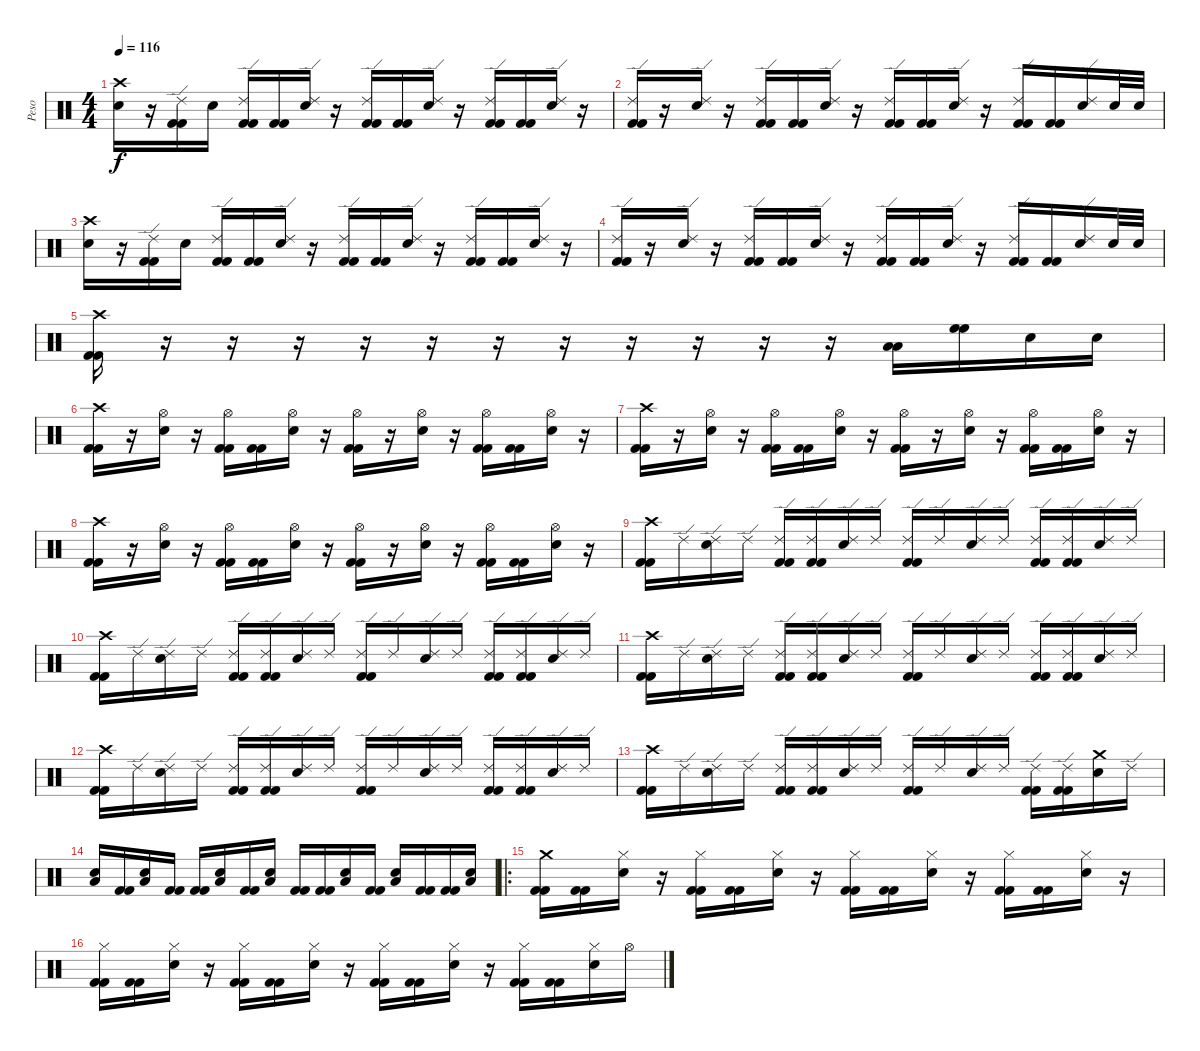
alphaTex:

\track ("Peso" "Peso") {instrument percussion}
\staff {score}
\articulation defaults
\ts (4 4)
\tempo 116
\clef neutral
\ks c
("Crash high (hit)" "Snare (hit) 2").16{dy f} r.16 ("Ride (edge) 2" "Kick (hit) 2" "Kick (hit) 2").16 "Snare (hit) 2".16 ("Ride (edge) 2" "Kick (hit) 2" "Kick (hit) 2").16 ("Kick (hit) 2" "Kick (hit) 2").16 ("Ride (edge) 2" "Snare (hit) 2").16 r.16 ("Ride (edge) 2" "Kick (hit) 2" "Kick (hit) 2").16 ("Kick (hit) 2" "Kick (hit) 2").16 ("Ride (edge) 2" "Snare (hit) 2").16 r.16 ("Ride (edge) 2" "Kick (hit) 2" "Kick (hit) 2").16 ("Kick (hit) 2" "Kick (hit) 2").16 ("Ride (edge) 2" "Snare (hit) 2").16 r.16 |
("Ride (edge) 2" "Kick (hit) 2" "Kick (hit) 2").16 r.16 ("Ride (edge) 2" "Snare (hit) 2").16 r.16 ("Ride (edge) 2" "Kick (hit) 2" "Kick (hit) 2").16 ("Kick (hit) 2" "Kick (hit) 2").16 ("Ride (edge) 2" "Snare (hit) 2").16 r.16 ("Ride (edge) 2" "Kick (hit) 2" "Kick (hit) 2").16 ("Kick (hit) 2" "Kick (hit) 2").16 ("Ride (edge) 2" "Snare (hit) 2").16 r.16 ("Ride (edge) 2" "Kick (hit) 2" "Kick (hit) 2").16 ("Kick (hit) 2" "Kick (hit) 2").16 ("Ride (edge) 2" "Snare (hit) 2").16 "Snare (hit) 2".32 "Snare (hit) 2".32 |
("Crash high (hit)" "Snare (hit) 2").16 r.16 ("Ride (edge) 2" "Kick (hit) 2" "Kick (hit) 2").16 "Snare (hit) 2".16 ("Ride (edge) 2" "Kick (hit) 2" "Kick (hit) 2").16 ("Kick (hit) 2" "Kick (hit) 2").16 ("Ride (edge) 2" "Snare (hit) 2").16 r.16 ("Ride (edge) 2" "Kick (hit) 2" "Kick (hit) 2").16 ("Kick (hit) 2" "Kick (hit) 2").16 ("Ride (edge) 2" "Snare (hit) 2").16 r.16 ("Ride (edge) 2" "Kick (hit) 2" "Kick (hit) 2").16 ("Kick (hit) 2" "Kick (hit) 2").16 ("Ride (edge) 2" "Snare (hit) 2").16 r.16 |
("Ride (edge) 2" "Kick (hit) 2" "Kick (hit) 2").16 r.16 ("Ride (edge) 2" "Snare (hit) 2").16 r.16 ("Ride (edge) 2" "Kick (hit) 2" "Kick (hit) 2").16 ("Kick (hit) 2" "Kick (hit) 2").16 ("Ride (edge) 2" "Snare (hit) 2").16 r.16 ("Ride (edge) 2" "Kick (hit) 2" "Kick (hit) 2").16 ("Kick (hit) 2" "Kick (hit) 2").16 ("Ride (edge) 2" "Snare (hit) 2").16 r.16 ("Ride (edge) 2" "Kick (hit) 2" "Kick (hit) 2").16 ("Kick (hit) 2" "Kick (hit) 2").16 ("Ride (edge) 2" "Snare (hit) 2").16 "Snare (hit) 2".32 "Snare (hit) 2".32 |
("Crash high (hit)" "Kick (hit) 2" "Kick (hit) 2").16 r.16 r.16 r.16 r.16 r.16 r.16 r.16 r.16 r.16 r.16 r.16 ("Low Floor Tom (hit)" "Low Floor Tom (hit)").16{volume 16} ("High Floor Tom (hit)" "High Floor Tom (hit)").16 "Snare (hit) 2".16{volume 15} "Snare (hit) 2".16 |
("Crash high (hit)" "Kick (hit) 2" "Kick (hit) 2").16 r.16 ("Hi-Hat (open)" "Snare (hit) 2").16 r.16 ("Hi-Hat (open)" "Kick (hit) 2" "Kick (hit) 2").16 ("Kick (hit) 2" "Kick (hit) 2").16 ("Hi-Hat (open)" "Snare (hit) 2").16 r.16 ("Hi-Hat (open)" "Kick (hit) 2" "Kick (hit) 2").16 r.16 ("Hi-Hat (open)" "Snare (hit) 2").16 r.16 ("Hi-Hat (open)" "Kick (hit) 2" "Kick (hit) 2").16 ("Kick (hit) 2" "Kick (hit) 2").16 ("Hi-Hat (open)" "Snare (hit) 2").16 r.16 |
("Crash high (hit)" "Kick (hit) 2" "Kick (hit) 2").16 r.16 ("Hi-Hat (open)" "Snare (hit) 2").16 r.16 ("Hi-Hat (open)" "Kick (hit) 2" "Kick (hit) 2").16 ("Kick (hit) 2" "Kick (hit) 2").16 ("Hi-Hat (open)" "Snare (hit) 2").16 r.16 ("Hi-Hat (open)" "Kick (hit) 2" "Kick (hit) 2").16 r.16 ("Hi-Hat (open)" "Snare (hit) 2").16 r.16 ("Hi-Hat (open)" "Kick (hit) 2" "Kick (hit) 2").16 ("Kick (hit) 2" "Kick (hit) 2").16 ("Hi-Hat (open)" "Snare (hit) 2").16 r.16 |
("Crash high (hit)" "Kick (hit) 2" "Kick (hit) 2").16 r.16 ("Hi-Hat (open)" "Snare (hit) 2").16 r.16 ("Hi-Hat (open)" "Kick (hit) 2" "Kick (hit) 2").16 ("Kick (hit) 2" "Kick (hit) 2").16 ("Hi-Hat (open)" "Snare (hit) 2").16 r.16 ("Hi-Hat (open)" "Kick (hit) 2" "Kick (hit) 2").16 r.16 ("Hi-Hat (open)" "Snare (hit) 2").16 r.16 ("Hi-Hat (open)" "Kick (hit) 2" "Kick (hit) 2").16 ("Kick (hit) 2" "Kick (hit) 2").16 ("Hi-Hat (open)" "Snare (hit) 2").16 r.16 |
("Crash high (hit)" "Kick (hit) 2" "Kick (hit) 2").16 "Ride (edge) 2".16 ("Ride (edge) 2" "Snare (hit) 2").16 "Ride (edge) 2".16 ("Ride (edge) 2" "Kick (hit) 2" "Kick (hit) 2").16 ("Ride (edge) 2" "Kick (hit) 2" "Kick (hit) 2").16 ("Ride (edge) 2" "Snare (hit) 2").16 "Ride (edge) 2".16 ("Ride (edge) 2" "Kick (hit) 2" "Kick (hit) 2").16 "Ride (edge) 2".16 ("Ride (edge) 2" "Snare (hit) 2").16 "Ride (edge) 2".16 ("Ride (edge) 2" "Kick (hit) 2" "Kick (hit) 2").16 ("Ride (edge) 2" "Kick (hit) 2" "Kick (hit) 2").16 ("Ride (edge) 2" "Snare (hit) 2").16 "Ride (edge) 2".16 |
("Crash high (hit)" "Kick (hit) 2" "Kick (hit) 2").16 "Ride (edge) 2".16 ("Ride (edge) 2" "Snare (hit) 2").16 "Ride (edge) 2".16 ("Ride (edge) 2" "Kick (hit) 2" "Kick (hit) 2").16 ("Ride (edge) 2" "Kick (hit) 2" "Kick (hit) 2").16 ("Ride (edge) 2" "Snare (hit) 2").16 "Ride (edge) 2".16 ("Ride (edge) 2" "Kick (hit) 2" "Kick (hit) 2").16 "Ride (edge) 2".16 ("Ride (edge) 2" "Snare (hit) 2").16 "Ride (edge) 2".16 ("Ride (edge) 2" "Kick (hit) 2" "Kick (hit) 2").16 ("Ride (edge) 2" "Kick (hit) 2" "Kick (hit) 2").16 ("Ride (edge) 2" "Snare (hit) 2").16 "Ride (edge) 2".16 |
("Crash high (hit)" "Kick (hit) 2" "Kick (hit) 2").16 "Ride (edge) 2".16 ("Ride (edge) 2" "Snare (hit) 2").16 "Ride (edge) 2".16 ("Ride (edge) 2" "Kick (hit) 2" "Kick (hit) 2").16 ("Ride (edge) 2" "Kick (hit) 2" "Kick (hit) 2").16 ("Ride (edge) 2" "Snare (hit) 2").16 "Ride (edge) 2".16 ("Ride (edge) 2" "Kick (hit) 2" "Kick (hit) 2").16 "Ride (edge) 2".16 ("Ride (edge) 2" "Snare (hit) 2").16 "Ride (edge) 2".16 ("Ride (edge) 2" "Kick (hit) 2" "Kick (hit) 2").16 ("Ride (edge) 2" "Kick (hit) 2" "Kick (hit) 2").16 ("Ride (edge) 2" "Snare (hit) 2").16 "Ride (edge) 2".16 |
("Crash high (hit)" "Kick (hit) 2" "Kick (hit) 2").16 "Ride (edge) 2".16 ("Ride (edge) 2" "Snare (hit) 2").16 "Ride (edge) 2".16 ("Ride (edge) 2" "Kick (hit) 2" "Kick (hit) 2").16 ("Ride (edge) 2" "Kick (hit) 2" "Kick (hit) 2").16 ("Ride (edge) 2" "Snare (hit) 2").16 "Ride (edge) 2".16 ("Ride (edge) 2" "Kick (hit) 2" "Kick (hit) 2").16 "Ride (edge) 2".16 ("Ride (edge) 2" "Snare (hit) 2").16 "Ride (edge) 2".16 ("Ride (edge) 2" "Kick (hit) 2" "Kick (hit) 2").16 ("Ride (edge) 2" "Kick (hit) 2" "Kick (hit) 2").16 ("Ride (edge) 2" "Snare (hit) 2").16 "Ride (edge) 2".16 |
("Crash high (hit)" "Kick (hit) 2" "Kick (hit) 2").16 "Ride (edge) 2".16 ("Ride (edge) 2" "Snare (hit) 2").16 "Ride (edge) 2".16 ("Ride (edge) 2" "Kick (hit) 2" "Kick (hit) 2").16 ("Ride (edge) 2" "Kick (hit) 2" "Kick (hit) 2").16 ("Ride (edge) 2" "Snare (hit) 2").16 "Ride (edge) 2".16 ("Ride (edge) 2" "Kick (hit) 2" "Kick (hit) 2").16 "Ride (edge) 2".16 ("Ride (edge) 2" "Snare (hit) 2").16 "Ride (edge) 2".16 ("Ride (edge) 2" "Kick (hit) 2" "Kick (hit) 2").16 ("Ride (edge) 2" "Kick (hit) 2" "Kick (hit) 2").16 ("Crash medium (hit)" "Snare (hit) 2").16 "Ride (edge) 2".16 |
("Low Floor Tom (hit)" "Snare (hit) 2").16 ("Kick (hit) 2" "Kick (hit) 2").16 ("Low Floor Tom (hit)" "Snare (hit) 2").16 ("Kick (hit) 2" "Kick (hit) 2").16 ("Kick (hit) 2" "Kick (hit) 2").16 ("Low Floor Tom (hit)" "Snare (hit) 2").16 ("Kick (hit) 2" "Kick (hit) 2").16 ("Low Floor Tom (hit)" "Snare (hit) 2").16 ("Kick (hit) 2" "Kick (hit) 2").16 ("Kick (hit) 2" "Kick (hit) 2").16 ("Low Floor Tom (hit)" "Snare (hit) 2").16 ("Kick (hit) 2" "Kick (hit) 2").16 ("Low Floor Tom (hit)" "Snare (hit) 2").16 ("Kick (hit) 2" "Kick (hit) 2").16 ("Kick (hit) 2" "Kick (hit) 2").16 ("Low Floor Tom (hit)" "Snare (hit) 2").16 |
\ro
("Crash medium (hit)" "Kick (hit) 2" "Kick (hit) 2").16 ("Kick (hit) 2" "Kick (hit) 2").16 ("Hi-Hat (closed)" "Snare (hit) 2").16 r.16 ("Hi-Hat (closed)" "Kick (hit) 2" "Kick (hit) 2").16 ("Kick (hit) 2" "Kick (hit) 2").16 ("Hi-Hat (closed)" "Snare (hit) 2").16 r.16 ("Hi-Hat (closed)" "Kick (hit) 2" "Kick (hit) 2").16 ("Kick (hit) 2" "Kick (hit) 2").16 ("Hi-Hat (closed)" "Snare (hit) 2").16 r.16 ("Hi-Hat (closed)" "Kick (hit) 2" "Kick (hit) 2").16 ("Kick (hit) 2" "Kick (hit) 2").16 ("Hi-Hat (closed)" "Snare (hit) 2").16 r.16 |
("Hi-Hat (closed)" "Kick (hit) 2" "Kick (hit) 2").16 ("Kick (hit) 2" "Kick (hit) 2").16 ("Hi-Hat (closed)" "Snare (hit) 2").16 r.16 ("Hi-Hat (closed)" "Kick (hit) 2" "Kick (hit) 2").16 ("Kick (hit) 2" "Kick (hit) 2").16 ("Hi-Hat (closed)" "Snare (hit) 2").16 r.16 ("Hi-Hat (closed)" "Kick (hit) 2" "Kick (hit) 2").16 ("Kick (hit) 2" "Kick (hit) 2").16 ("Hi-Hat (closed)" "Snare (hit) 2").16 r.16 ("Hi-Hat (closed)" "Kick (hit) 2" "Kick (hit) 2").16 ("Kick (hit) 2" "Kick (hit) 2").16 ("Hi-Hat (closed)" "Snare (hit) 2").16 "Hi-Hat (open)".16
